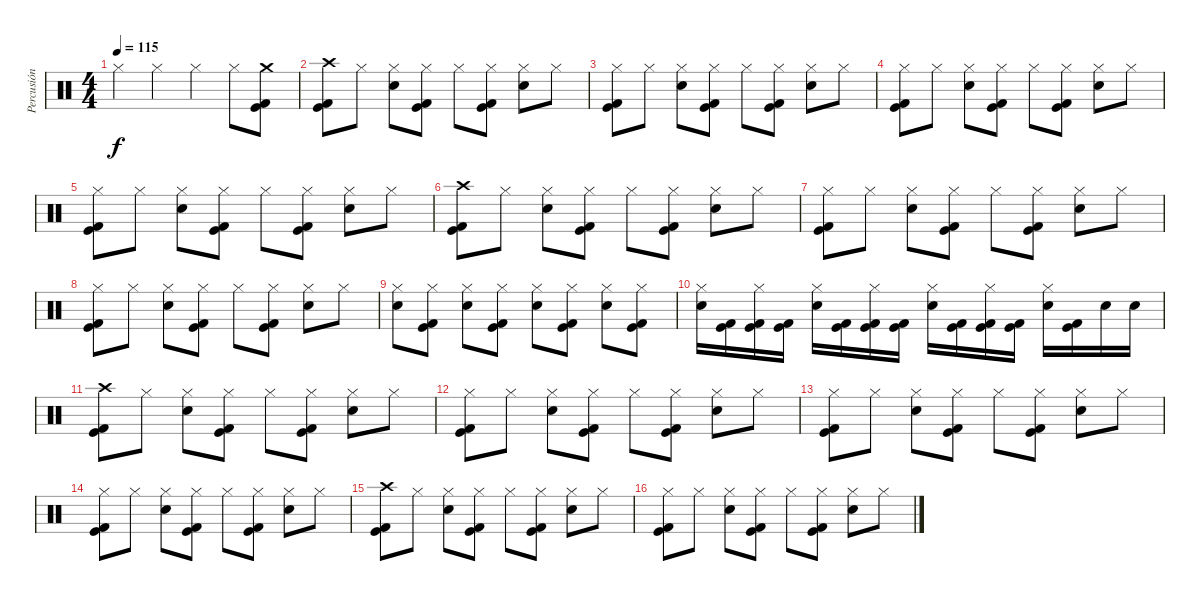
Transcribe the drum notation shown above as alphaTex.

\track ("Percusión" "Percusión") {instrument percussion}
\staff {score}
\articulation defaults
\ts (4 4)
\tempo 115
\clef neutral
\ks c "Hi-Hat (closed)".4{dy f} "Hi-Hat (closed)".4 "Hi-Hat (closed)".4 "Hi-Hat (closed)".8
("Kick (hit) 2" "Crash medium (hit)" "Kick (hit)").8 |
("Kick (hit) 2" "Crash high (hit)" "Kick (hit)").8 "Hi-Hat (closed)".8 ("Snare (hit) 2" "Hi-Hat (closed)").8 ("Kick (hit) 2" "Hi-Hat (closed)" "Kick (hit)").8 "Hi-Hat (closed)".8 ("Kick (hit) 2" "Hi-Hat (closed)" "Kick (hit)").8 ("Snare (hit) 2" "Hi-Hat (closed)").8 "Hi-Hat (closed)".8 |
("Kick (hit) 2" "Hi-Hat (closed)" "Kick (hit)").8 "Hi-Hat (closed)".8 ("Snare (hit) 2" "Hi-Hat (closed)").8 ("Kick (hit) 2" "Hi-Hat (closed)" "Kick (hit)").8 "Hi-Hat (closed)".8 ("Kick (hit) 2" "Hi-Hat (closed)" "Kick (hit)").8 ("Snare (hit) 2" "Hi-Hat (closed)").8 "Hi-Hat (closed)".8 |
("Kick (hit) 2" "Hi-Hat (closed)" "Kick (hit)").8 "Hi-Hat (closed)".8 ("Snare (hit) 2" "Hi-Hat (closed)").8 ("Kick (hit) 2" "Hi-Hat (closed)" "Kick (hit)").8 "Hi-Hat (closed)".8 ("Kick (hit) 2" "Hi-Hat (closed)" "Kick (hit)").8 ("Snare (hit) 2" "Hi-Hat (closed)").8 "Hi-Hat (closed)".8 |
("Kick (hit) 2" "Hi-Hat (closed)" "Kick (hit)").8 "Hi-Hat (closed)".8 ("Snare (hit) 2" "Hi-Hat (closed)").8 ("Kick (hit) 2" "Hi-Hat (closed)" "Kick (hit)").8 "Hi-Hat (closed)".8 ("Kick (hit) 2" "Hi-Hat (closed)" "Kick (hit)").8 ("Snare (hit) 2" "Hi-Hat (closed)").8 "Hi-Hat (closed)".8 |
("Kick (hit) 2" "Crash high (hit)" "Kick (hit)").8 "Hi-Hat (closed)".8 ("Snare (hit) 2" "Hi-Hat (closed)").8 ("Kick (hit) 2" "Hi-Hat (closed)" "Kick (hit)").8 "Hi-Hat (closed)".8 ("Kick (hit) 2" "Hi-Hat (closed)" "Kick (hit)").8 ("Snare (hit) 2" "Hi-Hat (closed)").8 "Hi-Hat (closed)".8 |
("Kick (hit) 2" "Hi-Hat (closed)" "Kick (hit)").8 "Hi-Hat (closed)".8 ("Snare (hit) 2" "Hi-Hat (closed)").8 ("Kick (hit) 2" "Hi-Hat (closed)" "Kick (hit)").8 "Hi-Hat (closed)".8 ("Kick (hit) 2" "Hi-Hat (closed)" "Kick (hit)").8 ("Snare (hit) 2" "Hi-Hat (closed)").8 "Hi-Hat (closed)".8 |
("Kick (hit) 2" "Hi-Hat (closed)" "Kick (hit)").8 "Hi-Hat (closed)".8 ("Snare (hit) 2" "Hi-Hat (closed)").8 ("Kick (hit) 2" "Hi-Hat (closed)" "Kick (hit)").8 "Hi-Hat (closed)".8 ("Kick (hit) 2" "Hi-Hat (closed)" "Kick (hit)").8 ("Snare (hit) 2" "Hi-Hat (closed)").8 "Hi-Hat (closed)".8 |
("Snare (hit) 2" "Hi-Hat (closed)").8 ("Kick (hit) 2" "Hi-Hat (closed)" "Kick (hit)").8 ("Snare (hit) 2" "Hi-Hat (closed)").8 ("Kick (hit) 2" "Hi-Hat (closed)" "Kick (hit)").8 ("Snare (hit) 2" "Hi-Hat (closed)").8 ("Kick (hit) 2" "Hi-Hat (closed)" "Kick (hit)").8 ("Snare (hit) 2" "Hi-Hat (closed)").8 ("Kick (hit) 2" "Hi-Hat (closed)" "Kick (hit)").8 |
("Snare (hit) 2" "Hi-Hat (closed)").16 ("Kick (hit) 2" "Kick (hit)").16 ("Kick (hit) 2" "Hi-Hat (closed)" "Kick (hit)").16 ("Kick (hit) 2" "Kick (hit)").16 ("Snare (hit) 2" "Hi-Hat (closed)").16 ("Kick (hit) 2" "Kick (hit)").16 ("Kick (hit) 2" "Hi-Hat (closed)" "Kick (hit)").16 ("Kick (hit) 2" "Kick (hit)").16 ("Snare (hit) 2" "Hi-Hat (closed)").16 ("Kick (hit) 2" "Kick (hit)").16 ("Kick (hit) 2" "Hi-Hat (closed)" "Kick (hit)").16 ("Kick (hit) 2" "Kick (hit)").16 ("Snare (hit) 2" "Hi-Hat (closed)").16 ("Kick (hit) 2" "Kick (hit)").16 "Snare (hit) 2".16 "Snare (hit) 2".16 |
("Kick (hit) 2" "Crash high (hit)" "Kick (hit)").8 "Hi-Hat (closed)".8 ("Snare (hit) 2" "Hi-Hat (closed)").8 ("Kick (hit) 2" "Hi-Hat (closed)" "Kick (hit)").8 "Hi-Hat (closed)".8 ("Kick (hit) 2" "Hi-Hat (closed)" "Kick (hit)").8 ("Snare (hit) 2" "Hi-Hat (closed)").8 "Hi-Hat (closed)".8 |
("Kick (hit) 2" "Hi-Hat (closed)" "Kick (hit)").8 "Hi-Hat (closed)".8 ("Snare (hit) 2" "Hi-Hat (closed)").8 ("Kick (hit) 2" "Hi-Hat (closed)" "Kick (hit)").8 "Hi-Hat (closed)".8 ("Kick (hit) 2" "Hi-Hat (closed)" "Kick (hit)").8 ("Snare (hit) 2" "Hi-Hat (closed)").8 "Hi-Hat (closed)".8 |
("Kick (hit) 2" "Hi-Hat (closed)" "Kick (hit)").8 "Hi-Hat (closed)".8 ("Snare (hit) 2" "Hi-Hat (closed)").8 ("Kick (hit) 2" "Hi-Hat (closed)" "Kick (hit)").8 "Hi-Hat (closed)".8 ("Kick (hit) 2" "Hi-Hat (closed)" "Kick (hit)").8 ("Snare (hit) 2" "Hi-Hat (closed)").8 "Hi-Hat (closed)".8 |
("Kick (hit) 2" "Hi-Hat (closed)" "Kick (hit)").8 "Hi-Hat (closed)".8 ("Snare (hit) 2" "Hi-Hat (closed)").8 ("Kick (hit) 2" "Hi-Hat (closed)" "Kick (hit)").8 "Hi-Hat (closed)".8 ("Kick (hit) 2" "Hi-Hat (closed)" "Kick (hit)").8 ("Snare (hit) 2" "Hi-Hat (closed)").8 "Hi-Hat (closed)".8 |
("Kick (hit) 2" "Crash high (hit)" "Kick (hit)").8 "Hi-Hat (closed)".8 ("Snare (hit) 2" "Hi-Hat (closed)").8 ("Kick (hit) 2" "Hi-Hat (closed)" "Kick (hit)").8 "Hi-Hat (closed)".8 ("Kick (hit) 2" "Hi-Hat (closed)" "Kick (hit)").8 ("Snare (hit) 2" "Hi-Hat (closed)").8 "Hi-Hat (closed)".8 |
("Kick (hit) 2" "Hi-Hat (closed)" "Kick (hit)").8 "Hi-Hat (closed)".8 ("Snare (hit) 2" "Hi-Hat (closed)").8 ("Kick (hit) 2" "Hi-Hat (closed)" "Kick (hit)").8 "Hi-Hat (closed)".8 ("Kick (hit) 2" "Hi-Hat (closed)" "Kick (hit)").8 ("Snare (hit) 2" "Hi-Hat (closed)").8 "Hi-Hat (closed)".8
